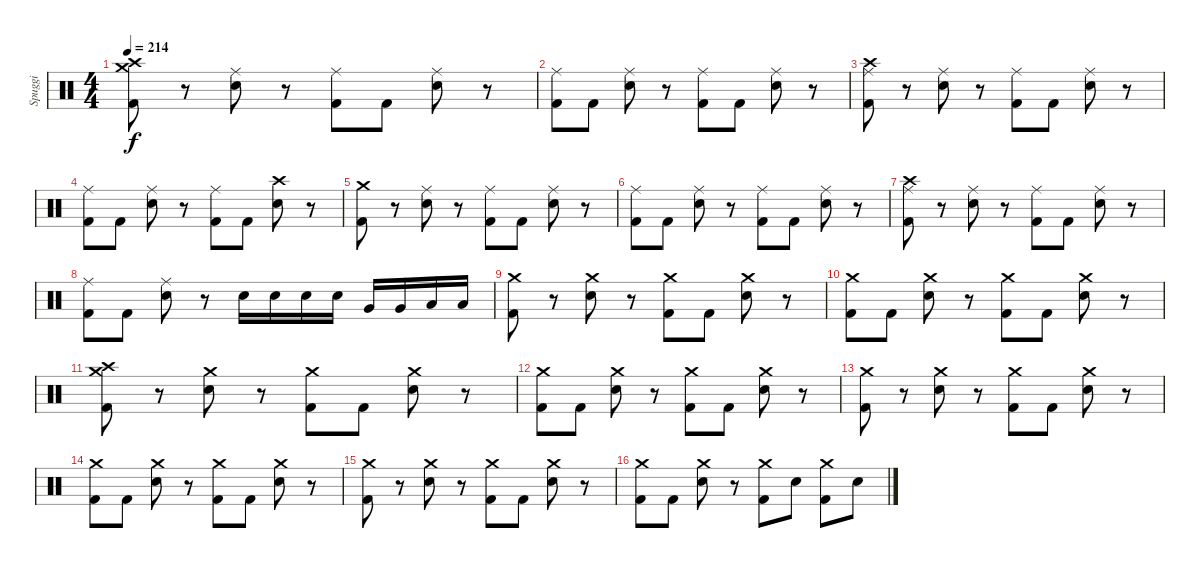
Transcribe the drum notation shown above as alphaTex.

\track ("Spuggi" "Spuggi") {instrument percussion}
\staff {score}
\articulation defaults
\ts (4 4)
\tempo 214
\clef neutral
\ks c
("Crash high (hit)" "Crash medium (hit)" "Kick (hit) 2").8{dy f} r.8 ("Ride (middle)" "Snare (hit) 2").8 r.8 ("Ride (middle)" "Kick (hit) 2").8 "Kick (hit) 2".8 ("Ride (middle)" "Snare (hit) 2").8 r.8 |
("Ride (middle)" "Kick (hit) 2").8 "Kick (hit) 2".8 ("Ride (middle)" "Snare (hit) 2").8 r.8 ("Ride (middle)" "Kick (hit) 2").8 "Kick (hit) 2".8 ("Ride (middle)" "Snare (hit) 2").8 r.8 |
("Crash high (hit)" "Ride (middle)" "Kick (hit) 2").8 r.8 ("Ride (middle)" "Snare (hit) 2").8 r.8 ("Ride (middle)" "Kick (hit) 2").8 "Kick (hit) 2".8 ("Ride (middle)" "Snare (hit) 2").8 r.8 |
("Ride (middle)" "Kick (hit) 2").8 "Kick (hit) 2".8 ("Ride (middle)" "Snare (hit) 2").8 r.8 ("Ride (middle)" "Kick (hit) 2").8 "Kick (hit) 2".8 ("Crash high (hit)" "Snare (hit) 2").8 r.8 |
("Crash medium (hit)" "Kick (hit) 2").8 r.8 ("Ride (middle)" "Snare (hit) 2").8 r.8 ("Ride (middle)" "Kick (hit) 2").8 "Kick (hit) 2".8 ("Ride (middle)" "Snare (hit) 2").8 r.8 |
("Ride (middle)" "Kick (hit) 2").8 "Kick (hit) 2".8 ("Ride (middle)" "Snare (hit) 2").8 r.8 ("Ride (middle)" "Kick (hit) 2").8 "Kick (hit) 2".8 ("Ride (middle)" "Snare (hit) 2").8 r.8 |
("Crash high (hit)" "Ride (middle)" "Kick (hit) 2").8 r.8 ("Ride (middle)" "Snare (hit) 2").8 r.8 ("Ride (middle)" "Kick (hit) 2").8 "Kick (hit) 2".8 ("Ride (middle)" "Snare (hit) 2").8 r.8 |
("Ride (middle)" "Kick (hit) 2").8 "Kick (hit) 2".8 ("Ride (middle)" "Snare (hit) 2").8 r.8 "Snare (hit) 2".16 "Snare (hit) 2".16 "Snare (hit) 2".16 "Snare (hit) 2".16 "Very Low Tom (hit)".16 "Very Low Tom (hit)".16 "Low Floor Tom (hit)".16 "Low Floor Tom (hit)".16 |
("Crash medium (hit)" "Kick (hit) 2").8 r.8 ("Crash medium (hit)" "Snare (hit) 2").8 r.8 ("Crash medium (hit)" "Kick (hit) 2").8 "Kick (hit) 2".8 ("Crash medium (hit)" "Snare (hit) 2").8 r.8 |
("Crash medium (hit)" "Kick (hit) 2").8 "Kick (hit) 2".8 ("Crash medium (hit)" "Snare (hit) 2").8 r.8 ("Crash medium (hit)" "Kick (hit) 2").8 "Kick (hit) 2".8 ("Crash medium (hit)" "Snare (hit) 2").8 r.8 |
("Crash high (hit)" "Crash medium (hit)" "Kick (hit) 2").8 r.8 ("Crash medium (hit)" "Snare (hit) 2").8 r.8 ("Crash medium (hit)" "Kick (hit) 2").8 "Kick (hit) 2".8 ("Crash medium (hit)" "Snare (hit) 2").8 r.8 |
("Crash medium (hit)" "Kick (hit) 2").8 "Kick (hit) 2".8 ("Crash medium (hit)" "Snare (hit) 2").8 r.8 ("Crash medium (hit)" "Kick (hit) 2").8 "Kick (hit) 2".8 ("Crash medium (hit)" "Snare (hit) 2").8 r.8 |
("Crash medium (hit)" "Kick (hit) 2").8 r.8 ("Crash medium (hit)" "Snare (hit) 2").8 r.8 ("Crash medium (hit)" "Kick (hit) 2").8 "Kick (hit) 2".8 ("Crash medium (hit)" "Snare (hit) 2").8 r.8 |
("Crash medium (hit)" "Kick (hit) 2").8 "Kick (hit) 2".8 ("Crash medium (hit)" "Snare (hit) 2").8 r.8 ("Crash medium (hit)" "Kick (hit) 2").8 "Kick (hit) 2".8 ("Crash medium (hit)" "Snare (hit) 2").8 r.8 |
("Crash medium (hit)" "Kick (hit) 2").8 r.8 ("Crash medium (hit)" "Snare (hit) 2").8 r.8 ("Crash medium (hit)" "Kick (hit) 2").8 "Kick (hit) 2".8 ("Crash medium (hit)" "Snare (hit) 2").8 r.8 |
("Crash medium (hit)" "Kick (hit) 2").8 "Kick (hit) 2".8 ("Crash medium (hit)" "Snare (hit) 2").8 r.8 ("Crash medium (hit)" "Kick (hit) 2").8 "Snare (hit) 2".8 ("Crash medium (hit)" "Kick (hit) 2").8 "Snare (hit) 2".8
